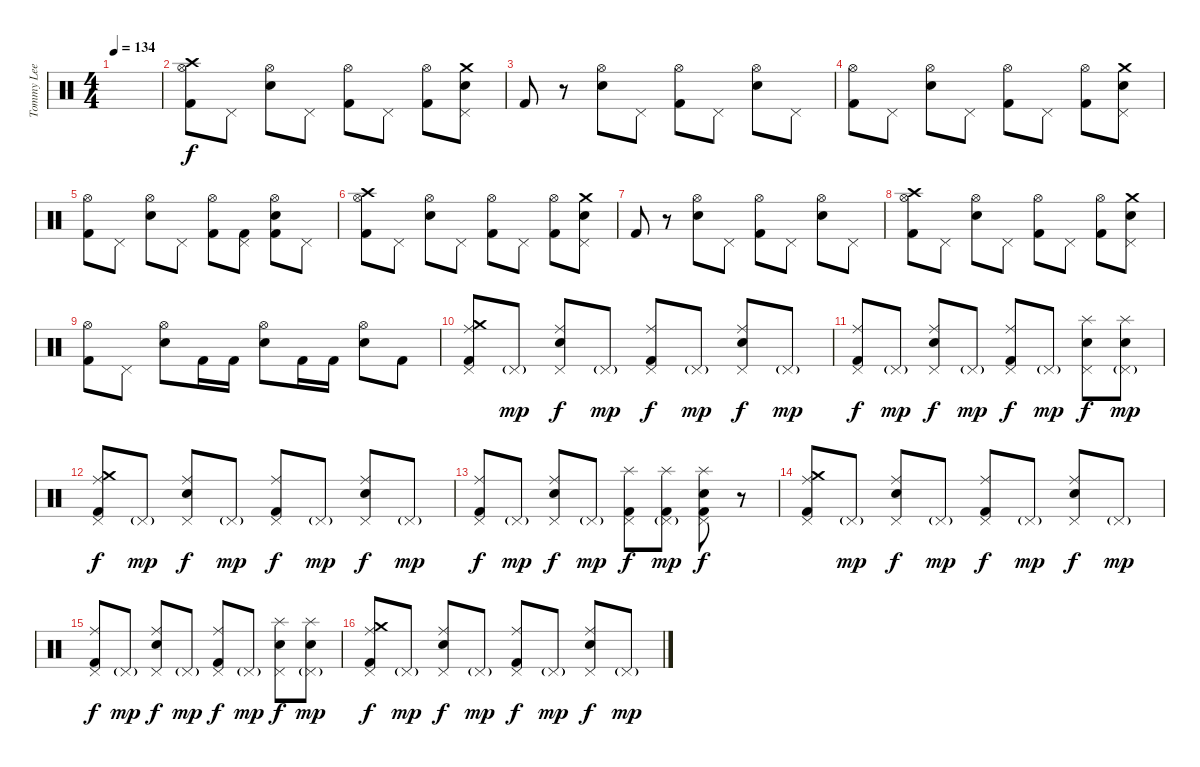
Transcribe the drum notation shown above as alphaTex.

\track ("Tommy Lee (Drums)" "Tommy Lee ") {instrument percussion}
\staff {score}
\articulation defaults
\ts (4 4)
\tempo 134
\clef neutral
\ks c
|
("Crash high (hit)" "Hi-Hat (open)" "Kick (hit) 2").8 "Pedal Hi-Hat (hit)".8 ("Hi-Hat (open)" "Electric Snare (hit)").8 "Pedal Hi-Hat (hit)".8 ("Hi-Hat (open)" "Kick (hit) 2").8 "Pedal Hi-Hat (hit)".8 ("Hi-Hat (open)" "Kick (hit) 2").8 ("Crash medium (hit)" "Pedal Hi-Hat (hit)" "Electric Snare (hit)").8 |
"Kick (hit) 2".8 r.8 ("Hi-Hat (open)" "Electric Snare (hit)").8 "Pedal Hi-Hat (hit)".8 ("Hi-Hat (open)" "Kick (hit) 2").8 "Pedal Hi-Hat (hit)".8 ("Hi-Hat (open)" "Electric Snare (hit)").8 "Pedal Hi-Hat (hit)".8 |
("Hi-Hat (open)" "Kick (hit) 2").8 "Pedal Hi-Hat (hit)".8 ("Hi-Hat (open)" "Electric Snare (hit)").8 "Pedal Hi-Hat (hit)".8 ("Hi-Hat (open)" "Kick (hit) 2").8 "Pedal Hi-Hat (hit)".8 ("Hi-Hat (open)" "Kick (hit) 2").8 ("Crash medium (hit)" "Pedal Hi-Hat (hit)" "Electric Snare (hit)").8 |
("Hi-Hat (open)" "Kick (hit) 2").8 "Pedal Hi-Hat (hit)".8 ("Hi-Hat (open)" "Electric Snare (hit)").8 "Pedal Hi-Hat (hit)".8 ("Hi-Hat (open)" "Kick (hit) 2").8 ("Pedal Hi-Hat (hit)" "Kick (hit) 2").8 ("Hi-Hat (open)" "Electric Snare (hit)" "Kick (hit) 2").8 "Pedal Hi-Hat (hit)".8 |
("Crash high (hit)" "Hi-Hat (open)" "Kick (hit) 2").8 "Pedal Hi-Hat (hit)".8 ("Hi-Hat (open)" "Electric Snare (hit)").8 "Pedal Hi-Hat (hit)".8 ("Hi-Hat (open)" "Kick (hit) 2").8 "Pedal Hi-Hat (hit)".8 ("Hi-Hat (open)" "Kick (hit) 2").8 ("Crash medium (hit)" "Pedal Hi-Hat (hit)" "Electric Snare (hit)").8 |
"Kick (hit) 2".8 r.8 ("Hi-Hat (open)" "Electric Snare (hit)").8 "Pedal Hi-Hat (hit)".8 ("Hi-Hat (open)" "Kick (hit) 2").8 "Pedal Hi-Hat (hit)".8 ("Hi-Hat (open)" "Electric Snare (hit)").8 "Pedal Hi-Hat (hit)".8 |
("Crash high (hit)" "Hi-Hat (open)" "Kick (hit) 2").8 "Pedal Hi-Hat (hit)".8 ("Hi-Hat (open)" "Electric Snare (hit)").8 "Pedal Hi-Hat (hit)".8 ("Hi-Hat (open)" "Kick (hit) 2").8 "Pedal Hi-Hat (hit)".8 ("Hi-Hat (open)" "Kick (hit) 2").8 ("Crash medium (hit)" "Pedal Hi-Hat (hit)" "Electric Snare (hit)").8 |
("Hi-Hat (open)" "Kick (hit) 2").8 "Pedal Hi-Hat (hit)".8 ("Hi-Hat (open)" "Electric Snare (hit)").8 "Kick (hit) 2".16 "Kick (hit) 2".16 ("Hi-Hat (open)" "Electric Snare (hit)").8 "Kick (hit) 2".16 "Kick (hit) 2".16 ("Hi-Hat (open)" "Electric Snare (hit)").8 "Kick (hit) 2".8 |
("Crash medium (hit)" "Ride (middle)" "Kick (hit) 2" "Pedal Hi-Hat (hit)").8 "Pedal Hi-Hat (hit)"{g}.8{dy mp} ("Ride (middle)" "Electric Snare (hit)" "Pedal Hi-Hat (hit)").8{dy f} "Pedal Hi-Hat (hit)"{g}.8{dy mp} ("Ride (middle)" "Kick (hit) 2" "Pedal Hi-Hat (hit)").8{dy f} "Pedal Hi-Hat (hit)"{g}.8{dy mp} ("Ride (middle)" "Electric Snare (hit)" "Pedal Hi-Hat (hit)").8{dy f} "Pedal Hi-Hat (hit)"{g}.8{dy mp} |
("Ride (middle)" "Kick (hit) 2" "Pedal Hi-Hat (hit)").8{dy f} "Pedal Hi-Hat (hit)"{g}.8{dy mp} ("Ride (middle)" "Electric Snare (hit)" "Pedal Hi-Hat (hit)").8{dy f} "Pedal Hi-Hat (hit)"{g}.8{dy mp} ("Ride (middle)" "Kick (hit) 2" "Pedal Hi-Hat (hit)").8{dy f} "Pedal Hi-Hat (hit)"{g}.8{dy mp} ("Splash (hit)" "Electric Snare (hit)" "Pedal Hi-Hat (hit)").8{dy f} ("Splash (hit)" "Electric Snare (hit)" "Pedal Hi-Hat (hit)"{g}).8{dy mp} |
("Crash medium (hit)" "Ride (middle)" "Kick (hit) 2" "Pedal Hi-Hat (hit)").8{dy f} "Pedal Hi-Hat (hit)"{g}.8{dy mp} ("Ride (middle)" "Electric Snare (hit)" "Pedal Hi-Hat (hit)").8{dy f} "Pedal Hi-Hat (hit)"{g}.8{dy mp} ("Ride (middle)" "Kick (hit) 2" "Pedal Hi-Hat (hit)").8{dy f} "Pedal Hi-Hat (hit)"{g}.8{dy mp} ("Ride (middle)" "Electric Snare (hit)" "Pedal Hi-Hat (hit)").8{dy f} "Pedal Hi-Hat (hit)"{g}.8{dy mp} |
("Ride (middle)" "Kick (hit) 2" "Pedal Hi-Hat (hit)").8{dy f} "Pedal Hi-Hat (hit)"{g}.8{dy mp} ("Ride (middle)" "Electric Snare (hit)" "Pedal Hi-Hat (hit)").8{dy f} "Pedal Hi-Hat (hit)"{g}.8{dy mp} ("Splash (hit)" "Kick (hit) 2" "Pedal Hi-Hat (hit)").8{dy f} ("Splash (hit)" "Kick (hit) 2" "Pedal Hi-Hat (hit)"{g}).8{dy mp} ("Splash (hit)" "Electric Snare (hit)" "Pedal Hi-Hat (hit)" "Kick (hit) 2").8{dy f} r.8 |
("Crash medium (hit)" "Ride (middle)" "Kick (hit) 2" "Pedal Hi-Hat (hit)").8 "Pedal Hi-Hat (hit)"{g}.8{dy mp} ("Ride (middle)" "Electric Snare (hit)" "Pedal Hi-Hat (hit)").8{dy f} "Pedal Hi-Hat (hit)"{g}.8{dy mp} ("Ride (middle)" "Kick (hit) 2" "Pedal Hi-Hat (hit)").8{dy f} "Pedal Hi-Hat (hit)"{g}.8{dy mp} ("Ride (middle)" "Electric Snare (hit)" "Pedal Hi-Hat (hit)").8{dy f} "Pedal Hi-Hat (hit)"{g}.8{dy mp} |
("Ride (middle)" "Kick (hit) 2" "Pedal Hi-Hat (hit)").8{dy f} "Pedal Hi-Hat (hit)"{g}.8{dy mp} ("Ride (middle)" "Electric Snare (hit)" "Pedal Hi-Hat (hit)").8{dy f} "Pedal Hi-Hat (hit)"{g}.8{dy mp} ("Ride (middle)" "Kick (hit) 2" "Pedal Hi-Hat (hit)").8{dy f} "Pedal Hi-Hat (hit)"{g}.8{dy mp} ("Splash (hit)" "Electric Snare (hit)" "Pedal Hi-Hat (hit)").8{dy f} ("Splash (hit)" "Electric Snare (hit)" "Pedal Hi-Hat (hit)"{g}).8{dy mp} |
("Crash medium (hit)" "Ride (middle)" "Kick (hit) 2" "Pedal Hi-Hat (hit)").8{dy f} "Pedal Hi-Hat (hit)"{g}.8{dy mp} ("Ride (middle)" "Electric Snare (hit)" "Pedal Hi-Hat (hit)").8{dy f} "Pedal Hi-Hat (hit)"{g}.8{dy mp} ("Ride (middle)" "Kick (hit) 2" "Pedal Hi-Hat (hit)").8{dy f} "Pedal Hi-Hat (hit)"{g}.8{dy mp} ("Ride (middle)" "Electric Snare (hit)" "Pedal Hi-Hat (hit)").8{dy f} "Pedal Hi-Hat (hit)"{g}.8{dy mp}
